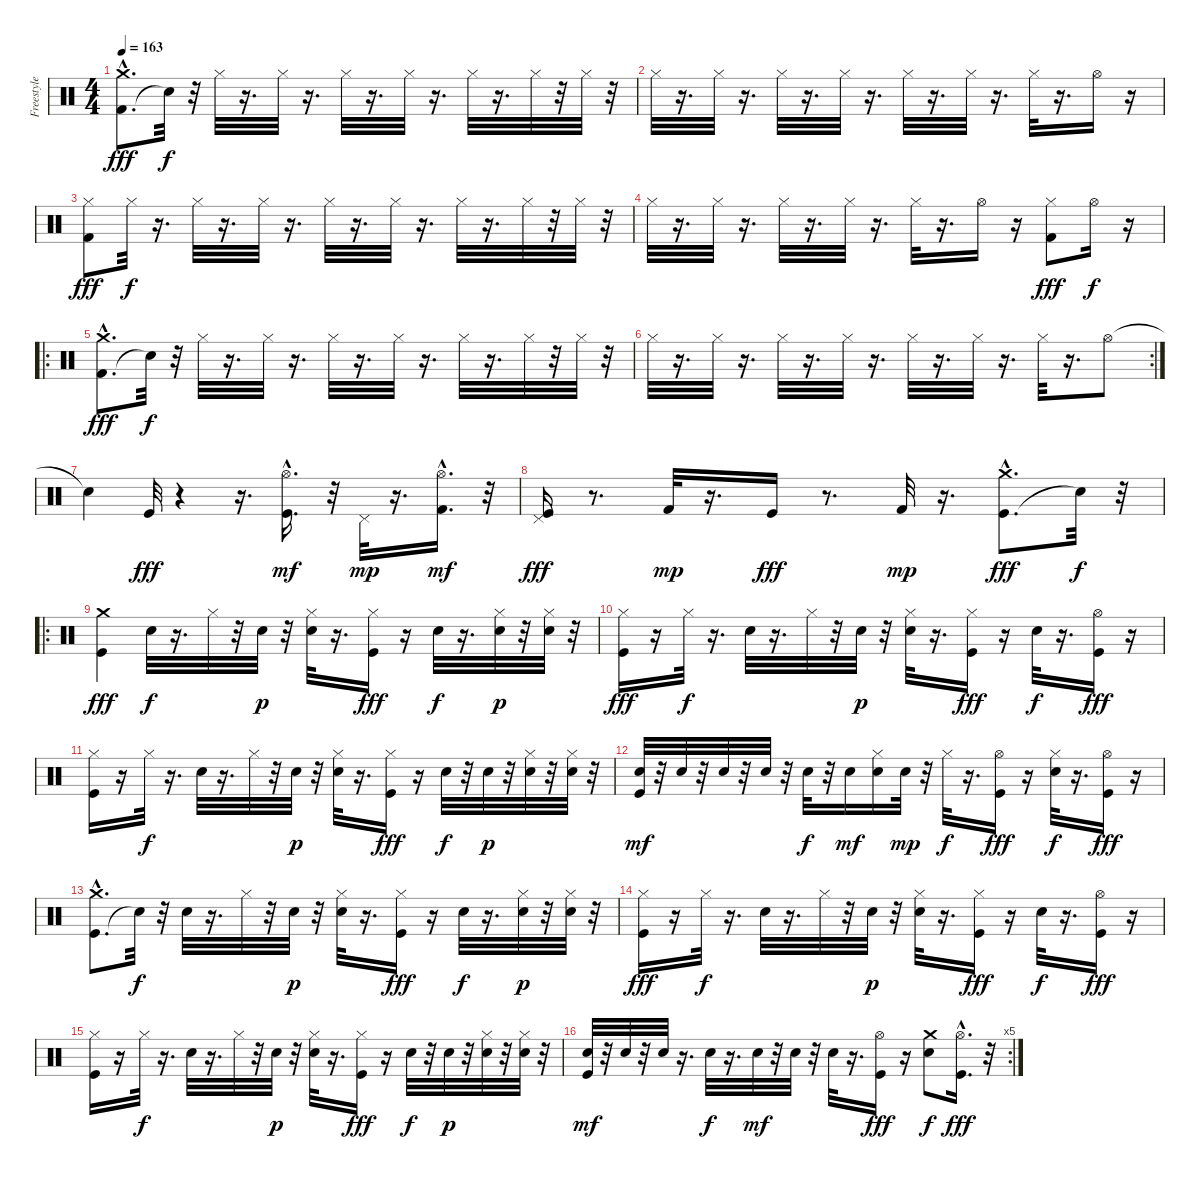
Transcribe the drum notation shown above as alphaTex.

\track ("Freestyle Drums" "Freestyle ") {instrument percussion}
\staff {score}
\articulation defaults
\ts (4 4)
\tempo 163
\clef neutral
\ks c
("Kick (hit) 2"{hac} "Crash medium (hit)"{hac}).8{d dy fff} "Snare (hit)"{t}.32{dy f} r.32 "Hi-Hat (closed)".32 r.16{d} "Hi-Hat (closed)".32 r.16{d} "Hi-Hat (closed)".32 r.16{d} "Hi-Hat (closed)".32 r.16{d} "Hi-Hat (closed)".32 r.16{d} "Hi-Hat (closed)".32 r.32 "Hi-Hat (closed)".32 r.32 |
"Hi-Hat (closed)".32 r.16{d} "Hi-Hat (closed)".32 r.16{d} "Hi-Hat (closed)".32 r.16{d} "Hi-Hat (closed)".32 r.16{d} "Hi-Hat (closed)".32 r.16{d} "Hi-Hat (closed)".32 r.16{d} "Hi-Hat (closed)".32 r.16{d} "Hi-Hat (open)".16 r.16 |
("Hi-Hat (closed)" "Kick (hit) 2").8{dy fff} "Hi-Hat (closed)".32{dy f} r.16{d} "Hi-Hat (closed)".32 r.16{d} "Hi-Hat (closed)".32 r.16{d} "Hi-Hat (closed)".32 r.16{d} "Hi-Hat (closed)".32 r.16{d} "Hi-Hat (closed)".32 r.16{d} "Hi-Hat (closed)".32 r.32 "Hi-Hat (closed)".32 r.32 |
"Hi-Hat (closed)".32 r.16{d} "Hi-Hat (closed)".32 r.16{d} "Hi-Hat (closed)".32 r.16{d} "Hi-Hat (closed)".32 r.16{d} "Hi-Hat (closed)".32 r.16{d} "Hi-Hat (open)".16 r.16 ("Hi-Hat (closed)" "Kick (hit) 2").8{dy fff} "Hi-Hat (open)".16{dy f} r.16 |
\ro
("Kick (hit) 2"{hac} "Crash medium (hit)"{hac}).8{d dy fff} "Snare (hit)"{t}.32{dy f} r.32 "Hi-Hat (closed)".32 r.16{d} "Hi-Hat (closed)".32 r.16{d} "Hi-Hat (closed)".32 r.16{d} "Hi-Hat (closed)".32 r.16{d} "Hi-Hat (closed)".32 r.16{d} "Hi-Hat (closed)".32 r.32 "Hi-Hat (closed)".32 r.32 |
\rc 2 "Hi-Hat (closed)".32
r.16{d} "Hi-Hat (closed)".32 r.16{d} "Hi-Hat (closed)".32 r.16{d} "Hi-Hat (closed)".32 r.16{d} "Hi-Hat (closed)".32 r.16{d} "Hi-Hat (closed)".32 r.16{d} "Hi-Hat (closed)".32 r.16{d} "Hi-Hat (open)".8 |
"Snare (hit)"{t}.4 "Kick (hit)".32{dy fff} r.4 r.16{d} ("Kick (hit)"{hac} "Hi-Hat (open)"{hac}).16{d dy mf} r.32 "Pedal Hi-Hat (hit)".32{dy mp} r.16{d} ("Kick (hit) 2"{hac} "Hi-Hat (open)"{hac}).16{d dy mf} r.32 |
("Pedal Hi-Hat (hit)" "Kick (hit)").16{dy fff} r.8{d} "Kick (hit) 2".32{dy mp} r.16{d} "Kick (hit)".16{dy fff} r.8{d} "Kick (hit) 2".32{dy mp} r.16{d} ("Kick (hit)"{hac} "Crash medium (hit)"{hac}).8{d dy fff} "Snare (hit)"{t}.32{dy f} r.32 |
\ro
("Kick (hit)" "Crash medium (hit)").4{dy fff} "Snare (hit) 2".32{dy f} r.16{d} "Hi-Hat (closed)".32 r.32 "Electric Snare (hit)".32{dy p} r.32 ("Hi-Hat (closed)" "Electric Snare (hit)").32 r.16{d} ("Hi-Hat (closed)" "Kick (hit)").16{dy fff} r.16 "Snare (hit) 2".32{dy f} r.16{d} ("Hi-Hat (closed)" "Electric Snare (hit)").32{dy p} r.32 ("Hi-Hat (closed)" "Electric Snare (hit)").32 r.32 |
("Hi-Hat (closed)" "Kick (hit)").16{dy fff} r.16 "Hi-Hat (closed)".32{dy f} r.16{d} "Snare (hit) 2".32 r.16{d} "Hi-Hat (closed)".32 r.32 "Electric Snare (hit)".32{dy p} r.32 ("Hi-Hat (closed)" "Electric Snare (hit)").32 r.16{d} ("Hi-Hat (closed)" "Kick (hit)").16{dy fff} r.16 "Snare (hit) 2".32{dy f} r.16{d} ("Kick (hit)" "Hi-Hat (open)").16{dy fff} r.16 |
("Hi-Hat (closed)" "Kick (hit)").16 r.16 "Hi-Hat (closed)".32{dy f} r.16{d} "Snare (hit) 2".32 r.16{d} "Hi-Hat (closed)".32 r.32 "Electric Snare (hit)".32{dy p} r.32 ("Hi-Hat (closed)" "Electric Snare (hit)").32 r.16{d} ("Hi-Hat (closed)" "Kick (hit)").16{dy fff} r.16 "Snare (hit) 2".32{dy f} r.32 "Electric Snare (hit)".32{dy p} r.32 ("Hi-Hat (closed)" "Electric Snare (hit)").32 r.32 ("Hi-Hat (closed)" "Electric Snare (hit)").32 r.32 |
("Kick (hit)" "Electric Snare (hit)").32{dy mf} r.32 "Electric Snare (hit)".32 r.32 "Electric Snare (hit)".32 r.32 "Electric Snare (hit)".32 r.32 "Snare (hit) 2".32{dy f} r.32 "Electric Snare (hit)".16{dy mf} ("Hi-Hat (closed)" "Electric Snare (hit)").16 "Electric Snare (hit)".32{dy mp} r.32 "Hi-Hat (closed)".32{dy f} r.16{d} ("Kick (hit)" "Hi-Hat (open)").16{dy fff} r.16 ("Hi-Hat (closed)" "Snare (hit) 2").32{dy f} r.16{d} ("Kick (hit)" "Hi-Hat (open)").16{dy fff} r.16 |
("Kick (hit)"{hac} "Crash medium (hit)"{hac}).8{d} "Snare (hit)"{t}.32{dy f} r.32 "Snare (hit) 2".32 r.16{d} "Hi-Hat (closed)".32 r.32 "Electric Snare (hit)".32{dy p} r.32 ("Hi-Hat (closed)" "Electric Snare (hit)").32 r.16{d} ("Hi-Hat (closed)" "Kick (hit)").16{dy fff} r.16 "Snare (hit) 2".32{dy f} r.16{d} ("Hi-Hat (closed)" "Electric Snare (hit)").32{dy p} r.32 ("Hi-Hat (closed)" "Electric Snare (hit)").32 r.32 |
("Hi-Hat (closed)" "Kick (hit)").16{dy fff} r.16 "Hi-Hat (closed)".32{dy f} r.16{d} "Snare (hit) 2".32 r.16{d} "Hi-Hat (closed)".32 r.32 "Electric Snare (hit)".32{dy p} r.32 ("Hi-Hat (closed)" "Electric Snare (hit)").32 r.16{d} ("Hi-Hat (closed)" "Kick (hit)").16{dy fff} r.16 "Snare (hit) 2".32{dy f} r.16{d} ("Kick (hit)" "Hi-Hat (open)").16{dy fff} r.16 |
("Hi-Hat (closed)" "Kick (hit)").16 r.16 "Hi-Hat (closed)".32{dy f} r.16{d} "Snare (hit) 2".32 r.16{d} "Hi-Hat (closed)".32 r.32 "Electric Snare (hit)".32{dy p} r.32 ("Hi-Hat (closed)" "Electric Snare (hit)").32 r.16{d} ("Hi-Hat (closed)" "Kick (hit)").16{dy fff} r.16 "Snare (hit) 2".32{dy f} r.32 "Electric Snare (hit)".32{dy p} r.32 ("Hi-Hat (closed)" "Electric Snare (hit)").32 r.32 ("Hi-Hat (closed)" "Electric Snare (hit)").32 r.32 |
\rc 5
("Kick (hit)" "Electric Snare (hit)").32{dy mf} r.32 "Electric Snare (hit)".32 r.32 "Electric Snare (hit)".32 r.16{d} "Snare (hit) 2".32{dy f} r.16{d} "Electric Snare (hit)".32{dy mf} r.32 "Electric Snare (hit)".32 r.32 "Electric Snare (hit)".32 r.16{d} ("Kick (hit)" "Hi-Hat (open)").16{dy fff} r.16 ("Snare (hit) 2" "Crash medium (hit)").8{dy f} ("Kick (hit)"{hac} "Hi-Hat (open)"{hac}).16{d dy fff} r.32
